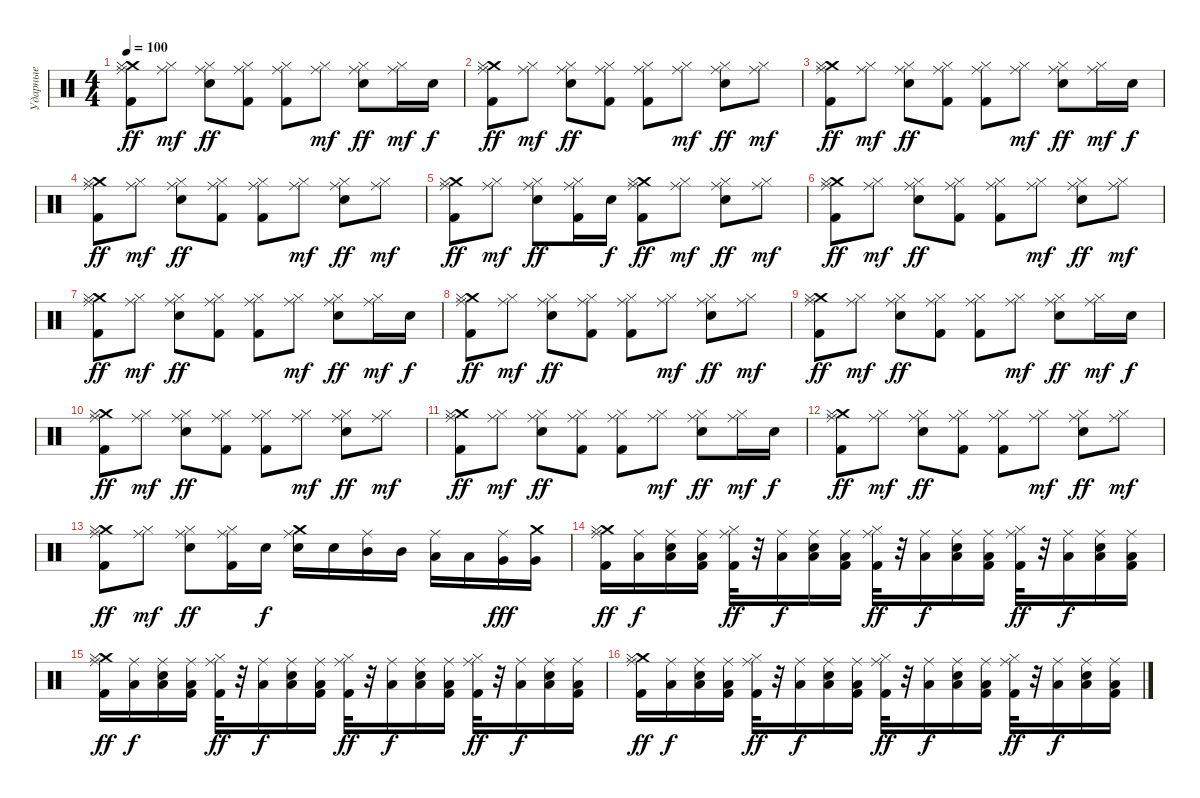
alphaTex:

\track ("Ударные" "Ударные") {instrument percussion}
\staff {score}
\articulation defaults
\ts (4 4)
\tempo 100
\clef neutral
\ks c
("Ride (middle)" "Crash medium (hit)" "Hi-Hat (closed)" "Kick (hit) 2").8{dy ff} ("Ride (middle)" "Hi-Hat (closed)").8{dy mf} ("Ride (middle)" "Hi-Hat (closed)" "Snare (hit) 2").8{dy ff} ("Ride (middle)" "Hi-Hat (closed)" "Kick (hit) 2").8 ("Ride (middle)" "Hi-Hat (closed)" "Kick (hit) 2").8 ("Ride (middle)" "Hi-Hat (closed)").8{dy mf} ("Ride (middle)" "Hi-Hat (closed)" "Snare (hit) 2").8{dy ff} ("Ride (middle)" "Hi-Hat (closed)").16{dy mf} "Electric Snare (hit)".16{dy f} |
("Ride (middle)" "Crash medium (hit)" "Hi-Hat (closed)" "Kick (hit) 2").8{dy ff} ("Ride (middle)" "Hi-Hat (closed)").8{dy mf} ("Ride (middle)" "Hi-Hat (closed)" "Snare (hit) 2").8{dy ff} ("Ride (middle)" "Hi-Hat (closed)" "Kick (hit) 2").8 ("Ride (middle)" "Hi-Hat (closed)" "Kick (hit) 2").8 ("Ride (middle)" "Hi-Hat (closed)").8{dy mf} ("Ride (middle)" "Hi-Hat (closed)" "Snare (hit) 2").8{dy ff} ("Ride (middle)" "Hi-Hat (closed)").8{dy mf} |
("Ride (middle)" "Crash medium (hit)" "Hi-Hat (closed)" "Kick (hit) 2").8{dy ff} ("Ride (middle)" "Hi-Hat (closed)").8{dy mf} ("Ride (middle)" "Hi-Hat (closed)" "Snare (hit) 2").8{dy ff} ("Ride (middle)" "Hi-Hat (closed)" "Kick (hit) 2").8 ("Ride (middle)" "Hi-Hat (closed)" "Kick (hit) 2").8 ("Ride (middle)" "Hi-Hat (closed)").8{dy mf} ("Ride (middle)" "Hi-Hat (closed)" "Snare (hit) 2").8{dy ff} ("Ride (middle)" "Hi-Hat (closed)").16{dy mf} "Electric Snare (hit)".16{dy f} |
("Ride (middle)" "Crash medium (hit)" "Hi-Hat (closed)" "Kick (hit) 2").8{dy ff} ("Ride (middle)" "Hi-Hat (closed)").8{dy mf} ("Ride (middle)" "Hi-Hat (closed)" "Snare (hit) 2").8{dy ff} ("Ride (middle)" "Hi-Hat (closed)" "Kick (hit) 2").8 ("Ride (middle)" "Hi-Hat (closed)" "Kick (hit) 2").8 ("Ride (middle)" "Hi-Hat (closed)").8{dy mf} ("Ride (middle)" "Hi-Hat (closed)" "Snare (hit) 2").8{dy ff} ("Ride (middle)" "Hi-Hat (closed)").8{dy mf} |
("Ride (middle)" "Crash medium (hit)" "Hi-Hat (closed)" "Kick (hit) 2").8{dy ff} ("Ride (middle)" "Hi-Hat (closed)").8{dy mf} ("Ride (middle)" "Hi-Hat (closed)" "Snare (hit) 2").8{dy ff} ("Ride (middle)" "Hi-Hat (closed)" "Kick (hit) 2").16 "Electric Snare (hit)".16{dy f} ("Crash medium (hit)" "Ride (middle)" "Hi-Hat (closed)" "Kick (hit) 2").8{dy ff} ("Ride (middle)" "Hi-Hat (closed)").8{dy mf} ("Ride (middle)" "Hi-Hat (closed)" "Snare (hit) 2").8{dy ff} ("Ride (middle)" "Hi-Hat (closed)").8{dy mf} |
("Ride (middle)" "Crash medium (hit)" "Hi-Hat (closed)" "Kick (hit) 2").8{dy ff} ("Ride (middle)" "Hi-Hat (closed)").8{dy mf} ("Ride (middle)" "Hi-Hat (closed)" "Snare (hit) 2").8{dy ff} ("Ride (middle)" "Hi-Hat (closed)" "Kick (hit) 2").8 ("Ride (middle)" "Hi-Hat (closed)" "Kick (hit) 2").8 ("Ride (middle)" "Hi-Hat (closed)").8{dy mf} ("Ride (middle)" "Hi-Hat (closed)" "Snare (hit) 2").8{dy ff} ("Ride (middle)" "Hi-Hat (closed)").8{dy mf} |
("Ride (middle)" "Crash medium (hit)" "Hi-Hat (closed)" "Kick (hit) 2").8{dy ff} ("Ride (middle)" "Hi-Hat (closed)").8{dy mf} ("Ride (middle)" "Hi-Hat (closed)" "Snare (hit) 2").8{dy ff} ("Ride (middle)" "Hi-Hat (closed)" "Kick (hit) 2").8 ("Ride (middle)" "Hi-Hat (closed)" "Kick (hit) 2").8 ("Ride (middle)" "Hi-Hat (closed)").8{dy mf} ("Ride (middle)" "Hi-Hat (closed)" "Snare (hit) 2").8{dy ff} ("Ride (middle)" "Hi-Hat (closed)").16{dy mf} "Electric Snare (hit)".16{dy f} |
("Ride (middle)" "Crash medium (hit)" "Hi-Hat (closed)" "Kick (hit) 2").8{dy ff} ("Ride (middle)" "Hi-Hat (closed)").8{dy mf} ("Ride (middle)" "Hi-Hat (closed)" "Snare (hit) 2").8{dy ff} ("Ride (middle)" "Hi-Hat (closed)" "Kick (hit) 2").8 ("Ride (middle)" "Hi-Hat (closed)" "Kick (hit) 2").8 ("Ride (middle)" "Hi-Hat (closed)").8{dy mf} ("Ride (middle)" "Hi-Hat (closed)" "Snare (hit) 2").8{dy ff} ("Ride (middle)" "Hi-Hat (closed)").8{dy mf} |
("Ride (middle)" "Crash medium (hit)" "Hi-Hat (closed)" "Kick (hit) 2").8{dy ff} ("Ride (middle)" "Hi-Hat (closed)").8{dy mf} ("Ride (middle)" "Hi-Hat (closed)" "Snare (hit) 2").8{dy ff} ("Ride (middle)" "Hi-Hat (closed)" "Kick (hit) 2").8 ("Ride (middle)" "Hi-Hat (closed)" "Kick (hit) 2").8 ("Ride (middle)" "Hi-Hat (closed)").8{dy mf} ("Ride (middle)" "Hi-Hat (closed)" "Snare (hit) 2").8{dy ff} ("Ride (middle)" "Hi-Hat (closed)").16{dy mf} "Electric Snare (hit)".16{dy f} |
("Ride (middle)" "Crash medium (hit)" "Hi-Hat (closed)" "Kick (hit) 2").8{dy ff} ("Ride (middle)" "Hi-Hat (closed)").8{dy mf} ("Ride (middle)" "Hi-Hat (closed)" "Snare (hit) 2").8{dy ff} ("Ride (middle)" "Hi-Hat (closed)" "Kick (hit) 2").8 ("Ride (middle)" "Hi-Hat (closed)" "Kick (hit) 2").8 ("Ride (middle)" "Hi-Hat (closed)").8{dy mf} ("Ride (middle)" "Hi-Hat (closed)" "Snare (hit) 2").8{dy ff} ("Ride (middle)" "Hi-Hat (closed)").8{dy mf} |
("Ride (middle)" "Crash medium (hit)" "Hi-Hat (closed)" "Kick (hit) 2").8{dy ff} ("Ride (middle)" "Hi-Hat (closed)").8{dy mf} ("Ride (middle)" "Hi-Hat (closed)" "Snare (hit) 2").8{dy ff} ("Ride (middle)" "Hi-Hat (closed)" "Kick (hit) 2").8 ("Ride (middle)" "Hi-Hat (closed)" "Kick (hit) 2").8 ("Ride (middle)" "Hi-Hat (closed)").8{dy mf} ("Ride (middle)" "Hi-Hat (closed)" "Snare (hit) 2").8{dy ff} ("Ride (middle)" "Hi-Hat (closed)").16{dy mf} "Electric Snare (hit)".16{dy f} |
("Ride (middle)" "Crash medium (hit)" "Hi-Hat (closed)" "Kick (hit) 2").8{dy ff} ("Ride (middle)" "Hi-Hat (closed)").8{dy mf} ("Ride (middle)" "Hi-Hat (closed)" "Snare (hit) 2").8{dy ff} ("Ride (middle)" "Hi-Hat (closed)" "Kick (hit) 2").8 ("Ride (middle)" "Hi-Hat (closed)" "Kick (hit) 2").8 ("Ride (middle)" "Hi-Hat (closed)").8{dy mf} ("Ride (middle)" "Hi-Hat (closed)" "Snare (hit) 2").8{dy ff} ("Ride (middle)" "Hi-Hat (closed)").8{dy mf} |
("Ride (middle)" "Crash medium (hit)" "Hi-Hat (closed)" "Kick (hit) 2").8{dy ff} ("Ride (middle)" "Hi-Hat (closed)").8{dy mf} ("Ride (middle)" "Hi-Hat (closed)" "Snare (hit) 2").8{dy ff} ("Ride (middle)" "Hi-Hat (closed)" "Kick (hit) 2").16 "Electric Snare (hit)".16{dy f} ("Ride (middle)" "Crash medium (hit)" "Snare (hit) 2").16 "Snare (hit) 2".16 ("Ride (middle)" "Mid Tom (hit)").16 "Mid Tom (hit)".16 ("Ride (middle)" "Low Tom (hit)").16 "Low Tom (hit)".16 ("Ride (middle)" "Very Low Tom (hit)").16{dy fff} ("Crash medium (hit)" "Very Low Tom (hit)").16 |
("Crash medium (hit)" "Ride (middle)" "Hi-Hat (closed)" "Kick (hit) 2").16{dy ff} ("Ride (middle)" "Low Floor Tom (hit)").16{dy f} ("Ride (middle)" "Low Floor Tom (hit)" "Snare (hit) 2").16 ("Ride (middle)" "Low Floor Tom (hit)" "Kick (hit) 2").16 ("Ride (middle)" "Hi-Hat (closed)" "Kick (hit) 2").32{dy ff} r.32 ("Ride (middle)" "Low Floor Tom (hit)").16{dy f} ("Ride (middle)" "Low Floor Tom (hit)" "Snare (hit) 2").16 ("Ride (middle)" "Low Floor Tom (hit)" "Kick (hit) 2").16 ("Ride (middle)" "Hi-Hat (closed)" "Kick (hit) 2").32{dy ff} r.32 ("Ride (middle)" "Low Floor Tom (hit)").16{dy f} ("Ride (middle)" "Low Floor Tom (hit)" "Snare (hit) 2").16 ("Ride (middle)" "Low Floor Tom (hit)" "Kick (hit) 2").16 ("Ride (middle)" "Hi-Hat (closed)" "Kick (hit) 2").32{dy ff} r.32 ("Ride (middle)" "Low Floor Tom (hit)").16{dy f} ("Ride (middle)" "Low Floor Tom (hit)" "Snare (hit) 2").16 ("Ride (middle)" "Low Floor Tom (hit)" "Kick (hit) 2").16 |
("Crash medium (hit)" "Ride (middle)" "Hi-Hat (closed)" "Kick (hit) 2").16{dy ff} ("Ride (middle)" "Low Floor Tom (hit)").16{dy f} ("Ride (middle)" "Low Floor Tom (hit)" "Snare (hit) 2").16 ("Ride (middle)" "Low Floor Tom (hit)" "Kick (hit) 2").16 ("Ride (middle)" "Hi-Hat (closed)" "Kick (hit) 2").32{dy ff} r.32 ("Ride (middle)" "Low Floor Tom (hit)").16{dy f} ("Ride (middle)" "Low Floor Tom (hit)" "Snare (hit) 2").16 ("Ride (middle)" "Low Floor Tom (hit)" "Kick (hit) 2").16 ("Ride (middle)" "Hi-Hat (closed)" "Kick (hit) 2").32{dy ff} r.32 ("Ride (middle)" "Low Floor Tom (hit)").16{dy f} ("Ride (middle)" "Low Floor Tom (hit)" "Snare (hit) 2").16 ("Ride (middle)" "Low Floor Tom (hit)" "Kick (hit) 2").16 ("Ride (middle)" "Hi-Hat (closed)" "Kick (hit) 2").32{dy ff} r.32 ("Ride (middle)" "Low Floor Tom (hit)").16{dy f} ("Ride (middle)" "Low Floor Tom (hit)" "Snare (hit) 2").16 ("Ride (middle)" "Low Floor Tom (hit)" "Kick (hit) 2").16 |
("Crash medium (hit)" "Ride (middle)" "Hi-Hat (closed)" "Kick (hit) 2").16{dy ff} ("Ride (middle)" "Low Floor Tom (hit)").16{dy f} ("Ride (middle)" "Low Floor Tom (hit)" "Snare (hit) 2").16 ("Ride (middle)" "Low Floor Tom (hit)" "Kick (hit) 2").16 ("Ride (middle)" "Hi-Hat (closed)" "Kick (hit) 2").32{dy ff} r.32 ("Ride (middle)" "Low Floor Tom (hit)").16{dy f} ("Ride (middle)" "Low Floor Tom (hit)" "Snare (hit) 2").16 ("Ride (middle)" "Low Floor Tom (hit)" "Kick (hit) 2").16 ("Ride (middle)" "Hi-Hat (closed)" "Kick (hit) 2").32{dy ff} r.32 ("Ride (middle)" "Low Floor Tom (hit)").16{dy f} ("Ride (middle)" "Low Floor Tom (hit)" "Snare (hit) 2").16 ("Ride (middle)" "Low Floor Tom (hit)" "Kick (hit) 2").16 ("Ride (middle)" "Hi-Hat (closed)" "Kick (hit) 2").32{dy ff} r.32 ("Ride (middle)" "Low Floor Tom (hit)").16{dy f} ("Ride (middle)" "Low Floor Tom (hit)" "Snare (hit) 2").16 ("Ride (middle)" "Low Floor Tom (hit)" "Kick (hit) 2").16
